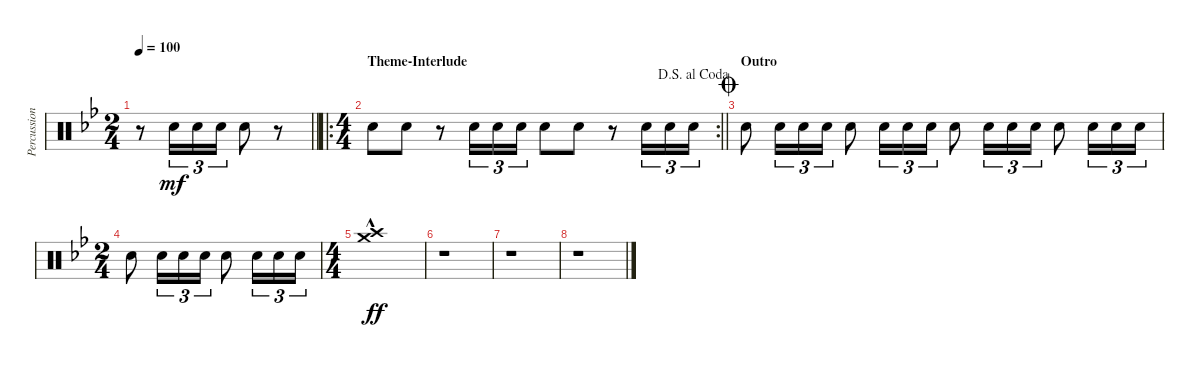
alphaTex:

\track ("Percussion" "Percussion") {instrument percussion}
\staff {score}
\articulation defaults
\ts (2 4)
\tempo 100
\clef neutral
\barLineRight lightlight
\ks bb
r.8{dy mf} "Snare (hit) 2".16{tu (3 2)} "Snare (hit) 2".16{tu (3 2)} "Snare (hit) 2".16{tu (3 2)} "Snare (hit) 2".8 r.8 |
\ro
\rc 2
\ts (4 4)
\section ("" "Theme-Interlude")
\jump dalsegnoalcoda
\barLineRight lightlight "Snare (hit) 2".8 "Snare (hit) 2".8
r.8 "Snare (hit) 2".16{tu (3 2)} "Snare (hit) 2".16{tu (3 2)} "Snare (hit) 2".16{tu (3 2)} "Snare (hit) 2".8 "Snare (hit) 2".8 r.8 "Snare (hit) 2".16{tu (3 2)} "Snare (hit) 2".16{tu (3 2)} "Snare (hit) 2".16{tu (3 2)} |
\section ("" "Outro")
\jump coda "Snare (hit) 2".8 "Snare (hit) 2".16{tu (3 2)} "Snare (hit) 2".16{tu (3 2)} "Snare (hit) 2".16{tu (3 2)} "Snare (hit) 2".8 "Snare (hit) 2".16{tu (3 2)} "Snare (hit) 2".16{tu (3 2)} "Snare (hit) 2".16{tu (3 2)} "Snare (hit) 2".8 "Snare (hit) 2".16{tu (3 2)} "Snare (hit) 2".16{tu (3 2)} "Snare (hit) 2".16{tu (3 2)} "Snare (hit) 2".8 "Snare (hit) 2".16{tu (3 2)} "Snare (hit) 2".16{tu (3 2)} "Snare (hit) 2".16{tu (3 2)}
|
\ts (2 4)
"Snare (hit) 2".8 "Snare (hit) 2".16{tu (3 2)} "Snare (hit) 2".16{tu (3 2)} "Snare (hit) 2".16{tu (3 2)} "Snare (hit) 2".8 "Snare (hit) 2".16{tu (3 2)} "Snare (hit) 2".16{tu (3 2)} "Snare (hit) 2".16{tu (3 2)} |
\ts (4 4)
("Crash high (hit)"{hac} "Crash medium (hit)"{hac}).1{dy ff} |
r.1 |
r.1 |
r.1
